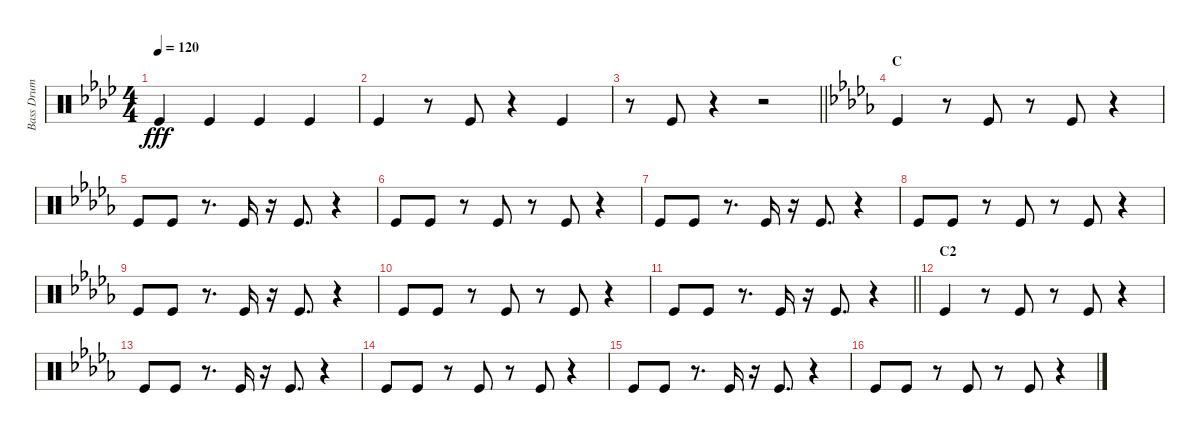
\track ("Bass Drum" "Bass Drum") {instrument percussion}
\staff {score}
\articulation defaults
\ts (4 4)
\tempo 120
\clef neutral
\ks ab "Kick (hit)".4{dy fff} "Kick (hit)".4 "Kick (hit)".4 "Kick (hit)".4
|
"Kick (hit)".4 r.8 "Kick (hit)".8 r.4 "Kick (hit)".4 |
\barLineRight lightlight
r.8 "Kick (hit)".8 r.4 r.2 |
\section ("" "C")
\ks db "Kick (hit)".4
r.8 "Kick (hit)".8 r.8 "Kick (hit)".8 r.4 |
"Kick (hit)".8 "Kick (hit)".8 r.8{d} "Kick (hit)".16 r.16 "Kick (hit)".8{d} r.4 |
"Kick (hit)".8 "Kick (hit)".8 r.8 "Kick (hit)".8 r.8 "Kick (hit)".8 r.4 |
"Kick (hit)".8 "Kick (hit)".8 r.8{d} "Kick (hit)".16 r.16 "Kick (hit)".8{d} r.4 |
"Kick (hit)".8 "Kick (hit)".8 r.8 "Kick (hit)".8 r.8 "Kick (hit)".8 r.4 |
"Kick (hit)".8 "Kick (hit)".8 r.8{d} "Kick (hit)".16 r.16 "Kick (hit)".8{d} r.4 |
"Kick (hit)".8 "Kick (hit)".8 r.8 "Kick (hit)".8 r.8 "Kick (hit)".8 r.4 |
\barLineRight lightlight "Kick (hit)".8 "Kick (hit)".8
r.8{d} "Kick (hit)".16 r.16 "Kick (hit)".8{d} r.4 |
\section ("" "C2")
"Kick (hit)".4 r.8 "Kick (hit)".8 r.8 "Kick (hit)".8 r.4 |
"Kick (hit)".8 "Kick (hit)".8 r.8{d} "Kick (hit)".16 r.16 "Kick (hit)".8{d} r.4 |
"Kick (hit)".8 "Kick (hit)".8 r.8 "Kick (hit)".8 r.8 "Kick (hit)".8 r.4 |
"Kick (hit)".8 "Kick (hit)".8 r.8{d} "Kick (hit)".16 r.16 "Kick (hit)".8{d} r.4 |
"Kick (hit)".8 "Kick (hit)".8 r.8 "Kick (hit)".8 r.8 "Kick (hit)".8 r.4
